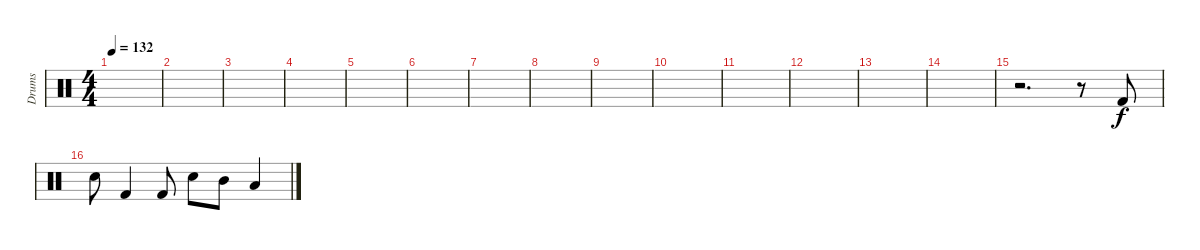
\track ("Drums" "Drums") {instrument percussion}
\staff {score}
\articulation defaults
\ts (4 4)
\tempo 132
\clef neutral
\ks c
|
|
|
|
|
|
|
|
|
|
|
|
|
|
r.2{d volume 15} r.8 "Kick (hit) 2".8{dy f} |
"Electric Snare (hit)".8 "Kick (hit) 2".4 "Kick (hit) 2".8 "Electric Snare (hit)".8 "Mid Tom (hit)".8 "Low Tom (hit)".4
